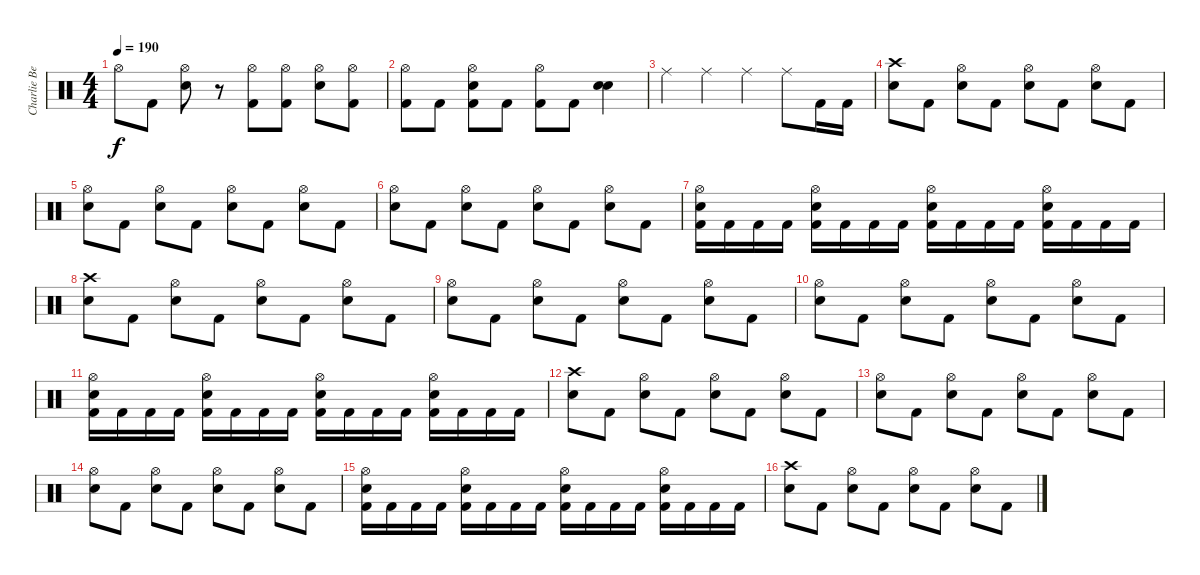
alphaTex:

\track ("Charlie Benante" "Charlie Be") {instrument percussion}
\staff {score}
\articulation defaults
\ts (4 4)
\tempo 190
\clef neutral
\ks c "Hi-Hat (open)".8{dy f} "Kick (hit) 2".8
("Snare (hit) 2" "Hi-Hat (open)").8 r.8 ("Hi-Hat (open)" "Kick (hit) 2").8 ("Hi-Hat (open)" "Kick (hit) 2").8 ("Snare (hit) 2" "Hi-Hat (open)").8 ("Hi-Hat (open)" "Kick (hit) 2").8 |
("Hi-Hat (open)" "Kick (hit) 2").8 "Kick (hit) 2".8 ("Snare (hit) 2" "Hi-Hat (open)" "Kick (hit) 2").8 "Kick (hit) 2".8 ("Hi-Hat (open)" "Kick (hit) 2").8 "Kick (hit) 2".8 ("Electric Snare (hit)" "Snare (hit) 2").4 |
"Ride (middle)".4 "Ride (middle)".4 "Ride (middle)".4 "Ride (middle)".8 "Kick (hit) 2".16 "Kick (hit) 2".16 |
("Snare (hit) 2" "Crash high (hit)").8 "Kick (hit) 2".8 ("Snare (hit) 2" "Hi-Hat (open)").8 "Kick (hit) 2".8 ("Snare (hit) 2" "Hi-Hat (open)").8 "Kick (hit) 2".8 ("Snare (hit) 2" "Hi-Hat (open)").8 "Kick (hit) 2".8 |
("Snare (hit) 2" "Hi-Hat (open)").8 "Kick (hit) 2".8 ("Snare (hit) 2" "Hi-Hat (open)").8 "Kick (hit) 2".8 ("Snare (hit) 2" "Hi-Hat (open)").8 "Kick (hit) 2".8 ("Snare (hit) 2" "Hi-Hat (open)").8 "Kick (hit) 2".8 |
("Snare (hit) 2" "Hi-Hat (open)").8 "Kick (hit) 2".8 ("Snare (hit) 2" "Hi-Hat (open)").8 "Kick (hit) 2".8 ("Snare (hit) 2" "Hi-Hat (open)").8 "Kick (hit) 2".8 ("Snare (hit) 2" "Hi-Hat (open)").8 "Kick (hit) 2".8 |
("Snare (hit) 2" "Hi-Hat (open)" "Kick (hit) 2").16 "Kick (hit) 2".16 "Kick (hit) 2".16 "Kick (hit) 2".16 ("Snare (hit) 2" "Hi-Hat (open)" "Kick (hit) 2").16 "Kick (hit) 2".16 "Kick (hit) 2".16 "Kick (hit) 2".16 ("Snare (hit) 2" "Hi-Hat (open)" "Kick (hit) 2").16 "Kick (hit) 2".16 "Kick (hit) 2".16 "Kick (hit) 2".16 ("Snare (hit) 2" "Hi-Hat (open)" "Kick (hit) 2").16 "Kick (hit) 2".16 "Kick (hit) 2".16 "Kick (hit) 2".16 |
("Snare (hit) 2" "Crash high (hit)").8 "Kick (hit) 2".8 ("Snare (hit) 2" "Hi-Hat (open)").8 "Kick (hit) 2".8 ("Snare (hit) 2" "Hi-Hat (open)").8 "Kick (hit) 2".8 ("Snare (hit) 2" "Hi-Hat (open)").8 "Kick (hit) 2".8 |
("Snare (hit) 2" "Hi-Hat (open)").8 "Kick (hit) 2".8 ("Snare (hit) 2" "Hi-Hat (open)").8 "Kick (hit) 2".8 ("Snare (hit) 2" "Hi-Hat (open)").8 "Kick (hit) 2".8 ("Snare (hit) 2" "Hi-Hat (open)").8 "Kick (hit) 2".8 |
("Snare (hit) 2" "Hi-Hat (open)").8 "Kick (hit) 2".8 ("Snare (hit) 2" "Hi-Hat (open)").8 "Kick (hit) 2".8 ("Snare (hit) 2" "Hi-Hat (open)").8 "Kick (hit) 2".8 ("Snare (hit) 2" "Hi-Hat (open)").8 "Kick (hit) 2".8 |
("Snare (hit) 2" "Hi-Hat (open)" "Kick (hit) 2").16 "Kick (hit) 2".16 "Kick (hit) 2".16 "Kick (hit) 2".16 ("Snare (hit) 2" "Hi-Hat (open)" "Kick (hit) 2").16 "Kick (hit) 2".16 "Kick (hit) 2".16 "Kick (hit) 2".16 ("Snare (hit) 2" "Hi-Hat (open)" "Kick (hit) 2").16 "Kick (hit) 2".16 "Kick (hit) 2".16 "Kick (hit) 2".16 ("Snare (hit) 2" "Hi-Hat (open)" "Kick (hit) 2").16 "Kick (hit) 2".16 "Kick (hit) 2".16 "Kick (hit) 2".16 |
("Snare (hit) 2" "Crash high (hit)").8 "Kick (hit) 2".8 ("Snare (hit) 2" "Hi-Hat (open)").8 "Kick (hit) 2".8 ("Snare (hit) 2" "Hi-Hat (open)").8 "Kick (hit) 2".8 ("Snare (hit) 2" "Hi-Hat (open)").8 "Kick (hit) 2".8 |
("Snare (hit) 2" "Hi-Hat (open)").8 "Kick (hit) 2".8 ("Snare (hit) 2" "Hi-Hat (open)").8 "Kick (hit) 2".8 ("Snare (hit) 2" "Hi-Hat (open)").8 "Kick (hit) 2".8 ("Snare (hit) 2" "Hi-Hat (open)").8 "Kick (hit) 2".8 |
("Snare (hit) 2" "Hi-Hat (open)").8 "Kick (hit) 2".8 ("Snare (hit) 2" "Hi-Hat (open)").8 "Kick (hit) 2".8 ("Snare (hit) 2" "Hi-Hat (open)").8 "Kick (hit) 2".8 ("Snare (hit) 2" "Hi-Hat (open)").8 "Kick (hit) 2".8 |
("Snare (hit) 2" "Hi-Hat (open)" "Kick (hit) 2").16 "Kick (hit) 2".16 "Kick (hit) 2".16 "Kick (hit) 2".16 ("Snare (hit) 2" "Hi-Hat (open)" "Kick (hit) 2").16 "Kick (hit) 2".16 "Kick (hit) 2".16 "Kick (hit) 2".16 ("Snare (hit) 2" "Hi-Hat (open)" "Kick (hit) 2").16 "Kick (hit) 2".16 "Kick (hit) 2".16 "Kick (hit) 2".16 ("Snare (hit) 2" "Hi-Hat (open)" "Kick (hit) 2").16 "Kick (hit) 2".16 "Kick (hit) 2".16 "Kick (hit) 2".16 |
("Snare (hit) 2" "Crash high (hit)").8 "Kick (hit) 2".8 ("Snare (hit) 2" "Hi-Hat (open)").8 "Kick (hit) 2".8 ("Snare (hit) 2" "Hi-Hat (open)").8 "Kick (hit) 2".8 ("Snare (hit) 2" "Hi-Hat (open)").8 "Kick (hit) 2".8
